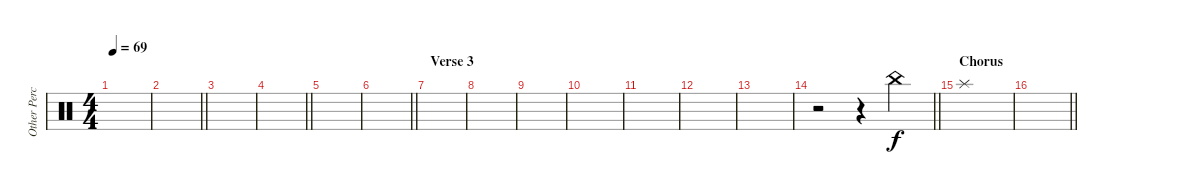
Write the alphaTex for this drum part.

\track ("Other Percussion" "Other Perc") {instrument percussion}
\staff {score}
\articulation defaults
\ts (4 4)
\tempo 69
\clef neutral
\ks aminor
|
\barLineRight lightlight
|
|
\barLineRight lightlight
|
|
\barLineRight lightlight
|
\section ("" "Verse 3")
|
|
|
|
|
|
|
\barLineRight lightlight
r.2 r.4 "China (hit)".4 |
\section ("" "Chorus")
"Splash (hit)".1 |
\barLineRight lightlight
